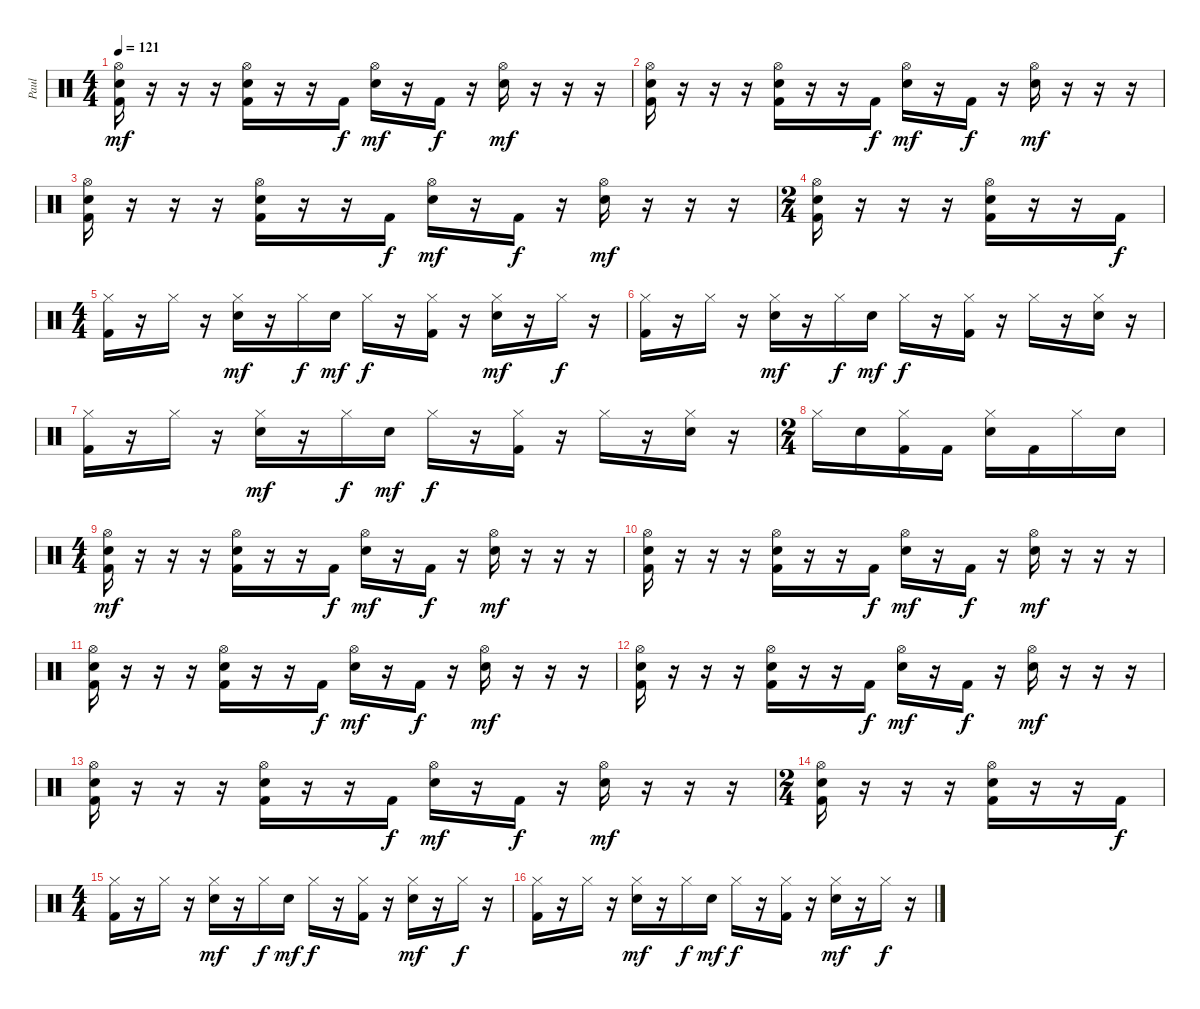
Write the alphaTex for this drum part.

\track ("Paul" "Paul") {instrument percussion}
\staff {score}
\articulation defaults
\ts (4 4)
\tempo 121
\clef neutral
\ks c
("Hi-Hat (open)" "Snare (hit) 2" "Kick (hit) 2").16{dy mf} r.16 r.16 r.16 ("Hi-Hat (open)" "Snare (hit) 2" "Kick (hit) 2").16 r.16 r.16 "Kick (hit) 2".16{dy f} ("Hi-Hat (open)" "Snare (hit) 2").16{dy mf} r.16 "Kick (hit) 2".16{dy f} r.16 ("Hi-Hat (open)" "Snare (hit) 2").16{dy mf} r.16 r.16 r.16 |
("Hi-Hat (open)" "Snare (hit) 2" "Kick (hit) 2").16 r.16 r.16 r.16 ("Hi-Hat (open)" "Snare (hit) 2" "Kick (hit) 2").16 r.16 r.16 "Kick (hit) 2".16{dy f} ("Hi-Hat (open)" "Snare (hit) 2").16{dy mf} r.16 "Kick (hit) 2".16{dy f} r.16 ("Hi-Hat (open)" "Snare (hit) 2").16{dy mf} r.16 r.16 r.16 |
("Hi-Hat (open)" "Snare (hit) 2" "Kick (hit) 2").16 r.16 r.16 r.16 ("Hi-Hat (open)" "Snare (hit) 2" "Kick (hit) 2").16 r.16 r.16 "Kick (hit) 2".16{dy f} ("Hi-Hat (open)" "Snare (hit) 2").16{dy mf} r.16 "Kick (hit) 2".16{dy f} r.16 ("Hi-Hat (open)" "Snare (hit) 2").16{dy mf} r.16 r.16 r.16 |
\ts (2 4)
("Hi-Hat (open)" "Snare (hit) 2" "Kick (hit) 2").16 r.16 r.16 r.16 ("Hi-Hat (open)" "Snare (hit) 2" "Kick (hit) 2").16 r.16 r.16 "Kick (hit) 2".16{dy f} |
\ts (4 4)
("Hi-Hat (closed)" "Kick (hit) 2").16 r.16 "Hi-Hat (closed)".16 r.16 ("Hi-Hat (closed)" "Snare (hit) 2").16{dy mf} r.16 "Hi-Hat (closed)".16{dy f} "Snare (hit) 2".16{dy mf} "Hi-Hat (closed)".16{dy f} r.16 ("Hi-Hat (closed)" "Kick (hit) 2").16 r.16 ("Hi-Hat (closed)" "Snare (hit) 2").16{dy mf} r.16 "Hi-Hat (closed)".16{dy f} r.16 |
("Hi-Hat (closed)" "Kick (hit) 2").16 r.16 "Hi-Hat (closed)".16 r.16 ("Hi-Hat (closed)" "Snare (hit) 2").16{dy mf} r.16 "Hi-Hat (closed)".16{dy f} "Snare (hit) 2".16{dy mf} "Hi-Hat (closed)".16{dy f} r.16 ("Hi-Hat (closed)" "Kick (hit) 2").16 r.16 "Hi-Hat (closed)".16 r.16 ("Hi-Hat (closed)" "Snare (hit) 2").16 r.16 |
("Hi-Hat (closed)" "Kick (hit) 2").16 r.16 "Hi-Hat (closed)".16 r.16 ("Hi-Hat (closed)" "Snare (hit) 2").16{dy mf} r.16 "Hi-Hat (closed)".16{dy f} "Snare (hit) 2".16{dy mf} "Hi-Hat (closed)".16{dy f} r.16 ("Hi-Hat (closed)" "Kick (hit) 2").16 r.16 "Hi-Hat (closed)".16 r.16 ("Hi-Hat (closed)" "Snare (hit) 2").16 r.16 |
\ts (2 4)
"Hi-Hat (closed)".16 "Snare (hit) 2".16 ("Hi-Hat (closed)" "Kick (hit) 2").16 "Kick (hit) 2".16 ("Hi-Hat (closed)" "Snare (hit) 2").16 "Kick (hit) 2".16 "Hi-Hat (closed)".16 "Snare (hit) 2".16 |
\ts (4 4)
("Hi-Hat (open)" "Snare (hit) 2" "Kick (hit) 2").16{dy mf} r.16 r.16 r.16 ("Hi-Hat (open)" "Snare (hit) 2" "Kick (hit) 2").16 r.16 r.16 "Kick (hit) 2".16{dy f} ("Hi-Hat (open)" "Snare (hit) 2").16{dy mf} r.16 "Kick (hit) 2".16{dy f} r.16 ("Hi-Hat (open)" "Snare (hit) 2").16{dy mf} r.16 r.16 r.16 |
("Hi-Hat (open)" "Snare (hit) 2" "Kick (hit) 2").16 r.16 r.16 r.16 ("Hi-Hat (open)" "Snare (hit) 2" "Kick (hit) 2").16 r.16 r.16 "Kick (hit) 2".16{dy f} ("Hi-Hat (open)" "Snare (hit) 2").16{dy mf} r.16 "Kick (hit) 2".16{dy f} r.16 ("Hi-Hat (open)" "Snare (hit) 2").16{dy mf} r.16 r.16 r.16 |
("Hi-Hat (open)" "Snare (hit) 2" "Kick (hit) 2").16 r.16 r.16 r.16 ("Hi-Hat (open)" "Snare (hit) 2" "Kick (hit) 2").16 r.16 r.16 "Kick (hit) 2".16{dy f} ("Hi-Hat (open)" "Snare (hit) 2").16{dy mf} r.16 "Kick (hit) 2".16{dy f} r.16 ("Hi-Hat (open)" "Snare (hit) 2").16{dy mf} r.16 r.16 r.16 |
("Hi-Hat (open)" "Snare (hit) 2" "Kick (hit) 2").16 r.16 r.16 r.16 ("Hi-Hat (open)" "Snare (hit) 2" "Kick (hit) 2").16 r.16 r.16 "Kick (hit) 2".16{dy f} ("Hi-Hat (open)" "Snare (hit) 2").16{dy mf} r.16 "Kick (hit) 2".16{dy f} r.16 ("Hi-Hat (open)" "Snare (hit) 2").16{dy mf} r.16 r.16 r.16 |
("Hi-Hat (open)" "Snare (hit) 2" "Kick (hit) 2").16 r.16 r.16 r.16 ("Hi-Hat (open)" "Snare (hit) 2" "Kick (hit) 2").16 r.16 r.16 "Kick (hit) 2".16{dy f} ("Hi-Hat (open)" "Snare (hit) 2").16{dy mf} r.16 "Kick (hit) 2".16{dy f} r.16 ("Hi-Hat (open)" "Snare (hit) 2").16{dy mf} r.16 r.16 r.16 |
\ts (2 4)
("Hi-Hat (open)" "Snare (hit) 2" "Kick (hit) 2").16 r.16 r.16 r.16 ("Hi-Hat (open)" "Snare (hit) 2" "Kick (hit) 2").16 r.16 r.16 "Kick (hit) 2".16{dy f} |
\ts (4 4)
("Hi-Hat (closed)" "Kick (hit) 2").16 r.16 "Hi-Hat (closed)".16 r.16 ("Hi-Hat (closed)" "Snare (hit) 2").16{dy mf} r.16 "Hi-Hat (closed)".16{dy f} "Snare (hit) 2".16{dy mf} "Hi-Hat (closed)".16{dy f} r.16 ("Hi-Hat (closed)" "Kick (hit) 2").16 r.16 ("Hi-Hat (closed)" "Snare (hit) 2").16{dy mf} r.16 "Hi-Hat (closed)".16{dy f} r.16 |
("Hi-Hat (closed)" "Kick (hit) 2").16 r.16 "Hi-Hat (closed)".16 r.16 ("Hi-Hat (closed)" "Snare (hit) 2").16{dy mf} r.16 "Hi-Hat (closed)".16{dy f} "Snare (hit) 2".16{dy mf} "Hi-Hat (closed)".16{dy f} r.16 ("Hi-Hat (closed)" "Kick (hit) 2").16 r.16 ("Hi-Hat (closed)" "Snare (hit) 2").16{dy mf} r.16 "Hi-Hat (closed)".16{dy f} r.16
